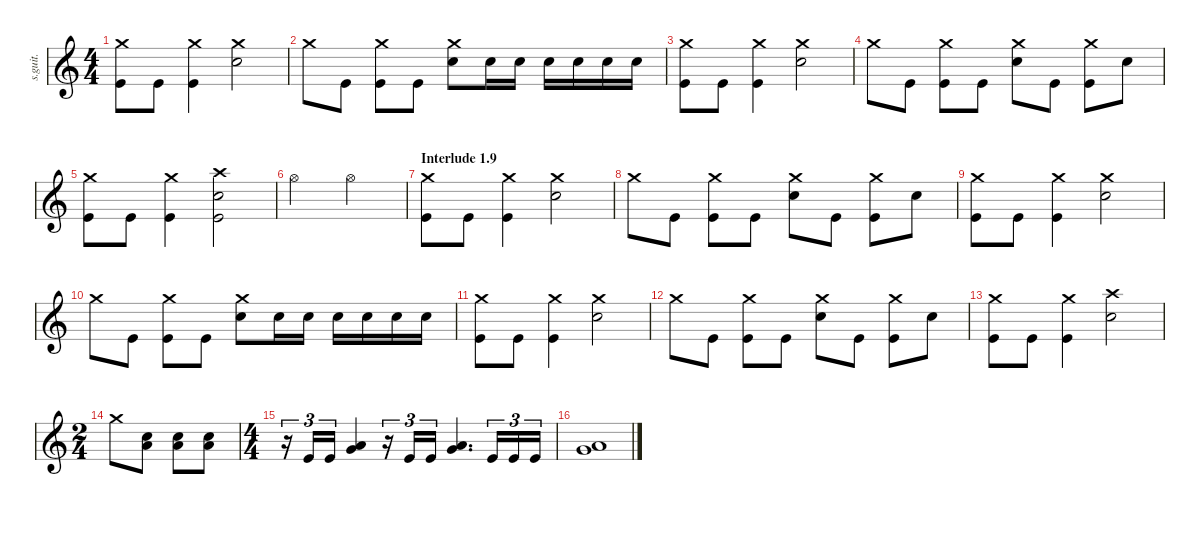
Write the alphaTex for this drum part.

\defaultSystemsLayout 4
\hideDynamics
\bracketExtendMode nobrackets
\track ("Joey Jordison" "s.guit.") {instrument percussion}
\staff {score}
\articulation defaults
\ts (4 4)
\tempo (200 hide)
\clef g2
\ks c
("Crash medium (hit)" "Kick (hit)").8{lyrics (0 "") lyrics (1 "") lyrics (2 "") lyrics (3 "") lyrics (4 "") dy ff} "Kick (hit)".8{lyrics (0 "") lyrics (1 "") lyrics (2 "") lyrics (3 "") lyrics (4 "")} ("Kick (hit)" "Crash medium (hit)").4{lyrics (0 "") lyrics (1 "") lyrics (2 "") lyrics (3 "") lyrics (4 "")} ("Crash medium (hit)" "Snare (hit) 2").2{lyrics (0 "") lyrics (1 "") lyrics (2 "") lyrics (3 "") lyrics (4 "")} |
"Crash medium (hit)".8{lyrics (0 "") lyrics (1 "") lyrics (2 "") lyrics (3 "") lyrics (4 "")} "Kick (hit)".8{lyrics (0 "") lyrics (1 "") lyrics (2 "") lyrics (3 "") lyrics (4 "")} ("Kick (hit)" "Crash medium (hit)").8{lyrics (0 "") lyrics (1 "") lyrics (2 "") lyrics (3 "") lyrics (4 "")} "Kick (hit)".8{lyrics (0 "") lyrics (1 "") lyrics (2 "") lyrics (3 "") lyrics (4 "")} ("Crash medium (hit)" "Snare (hit) 2").8{lyrics (0 "") lyrics (1 "") lyrics (2 "") lyrics (3 "") lyrics (4 "")} "Snare (hit) 2".16{lyrics (0 "") lyrics (1 "") lyrics (2 "") lyrics (3 "") lyrics (4 "")} "Snare (hit) 2".16{lyrics (0 "") lyrics (1 "") lyrics (2 "") lyrics (3 "") lyrics (4 "")} "Snare (hit) 2".16{lyrics (0 "") lyrics (1 "") lyrics (2 "") lyrics (3 "") lyrics (4 "")} "Snare (hit) 2".16{lyrics (0 "") lyrics (1 "") lyrics (2 "") lyrics (3 "") lyrics (4 "")} "Snare (hit) 2".16{lyrics (0 "") lyrics (1 "") lyrics (2 "") lyrics (3 "") lyrics (4 "")} "Snare (hit) 2".16{lyrics (0 "") lyrics (1 "") lyrics (2 "") lyrics (3 "") lyrics (4 "")} |
("Crash medium (hit)" "Kick (hit)").8{lyrics (0 "") lyrics (1 "") lyrics (2 "") lyrics (3 "") lyrics (4 "")} "Kick (hit)".8{lyrics (0 "") lyrics (1 "") lyrics (2 "") lyrics (3 "") lyrics (4 "")} ("Kick (hit)" "Crash medium (hit)").4{lyrics (0 "") lyrics (1 "") lyrics (2 "") lyrics (3 "") lyrics (4 "")} ("Crash medium (hit)" "Snare (hit) 2").2{lyrics (0 "") lyrics (1 "") lyrics (2 "") lyrics (3 "") lyrics (4 "")} |
"Crash medium (hit)".8{lyrics (0 "") lyrics (1 "") lyrics (2 "") lyrics (3 "") lyrics (4 "")} "Kick (hit)".8{lyrics (0 "") lyrics (1 "") lyrics (2 "") lyrics (3 "") lyrics (4 "")} ("Kick (hit)" "Crash medium (hit)").8{lyrics (0 "") lyrics (1 "") lyrics (2 "") lyrics (3 "") lyrics (4 "")} "Kick (hit)".8{lyrics (0 "") lyrics (1 "") lyrics (2 "") lyrics (3 "") lyrics (4 "")} ("Crash medium (hit)" "Snare (hit) 2").8{lyrics (0 "") lyrics (1 "") lyrics (2 "") lyrics (3 "") lyrics (4 "")} "Kick (hit)".8{lyrics (0 "") lyrics (1 "") lyrics (2 "") lyrics (3 "") lyrics (4 "")} ("Kick (hit)" "Crash medium (hit)").8{lyrics (0 "") lyrics (1 "") lyrics (2 "") lyrics (3 "") lyrics (4 "")} "Snare (hit) 2".8{lyrics (0 "") lyrics (1 "") lyrics (2 "") lyrics (3 "") lyrics (4 "")} |
("Crash medium (hit)" "Kick (hit)").8{lyrics (0 "") lyrics (1 "") lyrics (2 "") lyrics (3 "") lyrics (4 "")} "Kick (hit)".8{lyrics (0 "") lyrics (1 "") lyrics (2 "") lyrics (3 "") lyrics (4 "")} ("Crash medium (hit)" "Kick (hit)").4{lyrics (0 "") lyrics (1 "") lyrics (2 "") lyrics (3 "") lyrics (4 "")} ("Snare (hit) 2" "Crash high (hit)" "Kick (hit)").2{lyrics (0 "") lyrics (1 "") lyrics (2 "") lyrics (3 "") lyrics (4 "")} |
"Hi-Hat (open)".2{lyrics (0 "") lyrics (1 "") lyrics (2 "") lyrics (3 "") lyrics (4 "")} "Hi-Hat (open)".2{lyrics (0 "") lyrics (1 "") lyrics (2 "") lyrics (3 "") lyrics (4 "")} |
\section ("" "Interlude 1.9")
("Crash medium (hit)" "Kick (hit)").8{lyrics (0 "") lyrics (1 "") lyrics (2 "") lyrics (3 "") lyrics (4 "")} "Kick (hit)".8{lyrics (0 "") lyrics (1 "") lyrics (2 "") lyrics (3 "") lyrics (4 "")} ("Kick (hit)" "Crash medium (hit)").4{lyrics (0 "") lyrics (1 "") lyrics (2 "") lyrics (3 "") lyrics (4 "")} ("Crash medium (hit)" "Snare (hit) 2").2{lyrics (0 "") lyrics (1 "") lyrics (2 "") lyrics (3 "") lyrics (4 "")} |
"Crash medium (hit)".8{lyrics (0 "") lyrics (1 "") lyrics (2 "") lyrics (3 "") lyrics (4 "")} "Kick (hit)".8{lyrics (0 "") lyrics (1 "") lyrics (2 "") lyrics (3 "") lyrics (4 "")} ("Kick (hit)" "Crash medium (hit)").8{lyrics (0 "") lyrics (1 "") lyrics (2 "") lyrics (3 "") lyrics (4 "")} "Kick (hit)".8{lyrics (0 "") lyrics (1 "") lyrics (2 "") lyrics (3 "") lyrics (4 "")} ("Crash medium (hit)" "Snare (hit) 2").8{lyrics (0 "") lyrics (1 "") lyrics (2 "") lyrics (3 "") lyrics (4 "")} "Kick (hit)".8{lyrics (0 "") lyrics (1 "") lyrics (2 "") lyrics (3 "") lyrics (4 "")} ("Kick (hit)" "Crash medium (hit)").8{lyrics (0 "") lyrics (1 "") lyrics (2 "") lyrics (3 "") lyrics (4 "")} "Snare (hit) 2".8{lyrics (0 "") lyrics (1 "") lyrics (2 "") lyrics (3 "") lyrics (4 "")} |
("Crash medium (hit)" "Kick (hit)").8{lyrics (0 "") lyrics (1 "") lyrics (2 "") lyrics (3 "") lyrics (4 "")} "Kick (hit)".8{lyrics (0 "") lyrics (1 "") lyrics (2 "") lyrics (3 "") lyrics (4 "")} ("Kick (hit)" "Crash medium (hit)").4{lyrics (0 "") lyrics (1 "") lyrics (2 "") lyrics (3 "") lyrics (4 "")} ("Crash medium (hit)" "Snare (hit) 2").2{lyrics (0 "") lyrics (1 "") lyrics (2 "") lyrics (3 "") lyrics (4 "")} |
"Crash medium (hit)".8{lyrics (0 "") lyrics (1 "") lyrics (2 "") lyrics (3 "") lyrics (4 "")} "Kick (hit)".8{lyrics (0 "") lyrics (1 "") lyrics (2 "") lyrics (3 "") lyrics (4 "")} ("Kick (hit)" "Crash medium (hit)").8{lyrics (0 "") lyrics (1 "") lyrics (2 "") lyrics (3 "") lyrics (4 "")} "Kick (hit)".8{lyrics (0 "") lyrics (1 "") lyrics (2 "") lyrics (3 "") lyrics (4 "")} ("Crash medium (hit)" "Snare (hit) 2").8{lyrics (0 "") lyrics (1 "") lyrics (2 "") lyrics (3 "") lyrics (4 "")} "Snare (hit) 2".16{lyrics (0 "") lyrics (1 "") lyrics (2 "") lyrics (3 "") lyrics (4 "")} "Snare (hit) 2".16{lyrics (0 "") lyrics (1 "") lyrics (2 "") lyrics (3 "") lyrics (4 "")} "Snare (hit) 2".16{lyrics (0 "") lyrics (1 "") lyrics (2 "") lyrics (3 "") lyrics (4 "")} "Snare (hit) 2".16{lyrics (0 "") lyrics (1 "") lyrics (2 "") lyrics (3 "") lyrics (4 "")} "Snare (hit) 2".16{lyrics (0 "") lyrics (1 "") lyrics (2 "") lyrics (3 "") lyrics (4 "")} "Snare (hit) 2".16{lyrics (0 "") lyrics (1 "") lyrics (2 "") lyrics (3 "") lyrics (4 "")} |
("Crash medium (hit)" "Kick (hit)").8{lyrics (0 "") lyrics (1 "") lyrics (2 "") lyrics (3 "") lyrics (4 "")} "Kick (hit)".8{lyrics (0 "") lyrics (1 "") lyrics (2 "") lyrics (3 "") lyrics (4 "")} ("Kick (hit)" "Crash medium (hit)").4{lyrics (0 "") lyrics (1 "") lyrics (2 "") lyrics (3 "") lyrics (4 "")} ("Crash medium (hit)" "Snare (hit) 2").2{lyrics (0 "") lyrics (1 "") lyrics (2 "") lyrics (3 "") lyrics (4 "")} |
"Crash medium (hit)".8{lyrics (0 "") lyrics (1 "") lyrics (2 "") lyrics (3 "") lyrics (4 "")} "Kick (hit)".8{lyrics (0 "") lyrics (1 "") lyrics (2 "") lyrics (3 "") lyrics (4 "")} ("Kick (hit)" "Crash medium (hit)").8{lyrics (0 "") lyrics (1 "") lyrics (2 "") lyrics (3 "") lyrics (4 "")} "Kick (hit)".8{lyrics (0 "") lyrics (1 "") lyrics (2 "") lyrics (3 "") lyrics (4 "")} ("Crash medium (hit)" "Snare (hit) 2").8{lyrics (0 "") lyrics (1 "") lyrics (2 "") lyrics (3 "") lyrics (4 "")} "Kick (hit)".8{lyrics (0 "") lyrics (1 "") lyrics (2 "") lyrics (3 "") lyrics (4 "")} ("Kick (hit)" "Crash medium (hit)").8{lyrics (0 "") lyrics (1 "") lyrics (2 "") lyrics (3 "") lyrics (4 "")} "Snare (hit) 2".8{lyrics (0 "") lyrics (1 "") lyrics (2 "") lyrics (3 "") lyrics (4 "")} |
("Crash medium (hit)" "Kick (hit)").8{lyrics (0 "") lyrics (1 "") lyrics (2 "") lyrics (3 "") lyrics (4 "")} "Kick (hit)".8{lyrics (0 "") lyrics (1 "") lyrics (2 "") lyrics (3 "") lyrics (4 "")} ("Crash medium (hit)" "Kick (hit)").4{lyrics (0 "") lyrics (1 "") lyrics (2 "") lyrics (3 "") lyrics (4 "")} ("Crash high (hit)" "Snare (hit) 2").2{lyrics (0 "") lyrics (1 "") lyrics (2 "") lyrics (3 "") lyrics (4 "")} |
\ts (2 4)
\beaming (8 2 2 2 2)
\tempo (190 hide)
"Crash medium (hit)".8{lyrics (0 "") lyrics (1 "") lyrics (2 "") lyrics (3 "") lyrics (4 "")} ("Snare (hit) 2" "Low Floor Tom (hit)").8{lyrics (0 "") lyrics (1 "") lyrics (2 "") lyrics (3 "") lyrics (4 "")} ("Snare (hit) 2" "Low Floor Tom (hit)").8{lyrics (0 "") lyrics (1 "") lyrics (2 "") lyrics (3 "") lyrics (4 "")} ("Snare (hit) 2" "Low Floor Tom (hit)").8{lyrics (0 "") lyrics (1 "") lyrics (2 "") lyrics (3 "") lyrics (4 "")} |
\ts (4 4)
\beaming (8 2 2 2 2)
\tempo (150 hide)
r.16{tu (3 2)} "Kick (hit)".16{tu (3 2) lyrics (0 "") lyrics (1 "") lyrics (2 "") lyrics (3 "") lyrics (4 "")} "Kick (hit)".16{tu (3 2) lyrics (0 "") lyrics (1 "") lyrics (2 "") lyrics (3 "") lyrics (4 "")} ("Low Floor Tom (hit)" "Very Low Tom (hit)").4{lyrics (0 "") lyrics (1 "") lyrics (2 "") lyrics (3 "") lyrics (4 "")} r.16{tu (3 2)} "Kick (hit)".16{tu (3 2) lyrics (0 "") lyrics (1 "") lyrics (2 "") lyrics (3 "") lyrics (4 "")} "Kick (hit)".16{tu (3 2) lyrics (0 "") lyrics (1 "") lyrics (2 "") lyrics (3 "") lyrics (4 "")} ("Low Floor Tom (hit)" "Very Low Tom (hit)").4{d lyrics (0 "") lyrics (1 "") lyrics (2 "") lyrics (3 "") lyrics (4 "")} "Kick (hit)".16{tu (3 2) lyrics (0 "") lyrics (1 "") lyrics (2 "") lyrics (3 "") lyrics (4 "")} "Kick (hit)".16{tu (3 2) lyrics (0 "") lyrics (1 "") lyrics (2 "") lyrics (3 "") lyrics (4 "")} "Kick (hit)".16{tu (3 2) lyrics (0 "") lyrics (1 "") lyrics (2 "") lyrics (3 "") lyrics (4 "")} |
("Low Floor Tom (hit)" "Very Low Tom (hit)").1{lyrics (0 "") lyrics (1 "") lyrics (2 "") lyrics (3 "") lyrics (4 "")}
